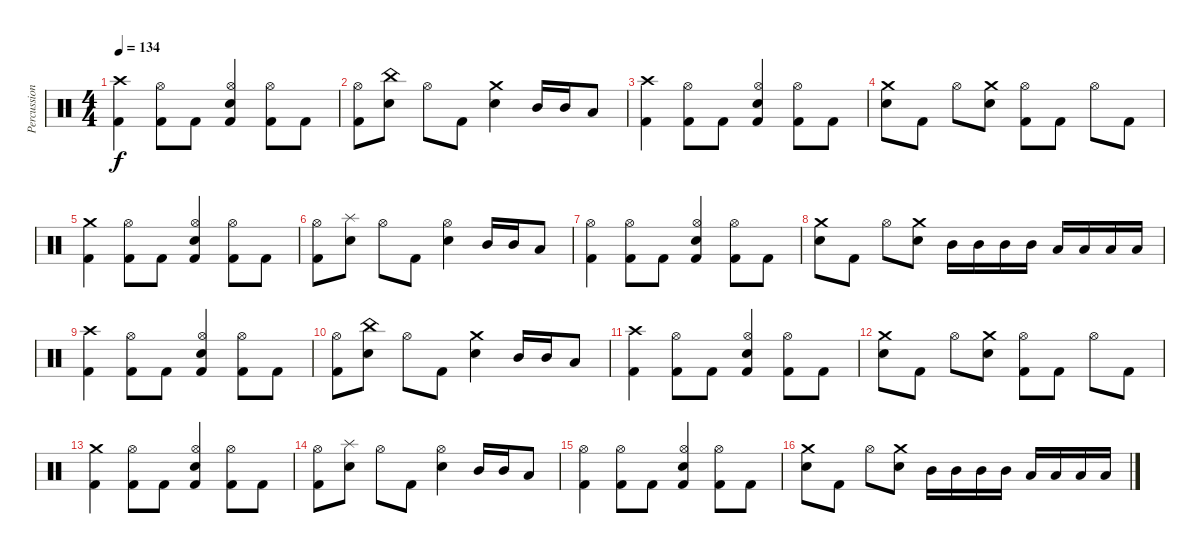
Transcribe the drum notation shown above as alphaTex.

\track ("Percussion" "Percussion") {instrument percussion}
\staff {score}
\articulation defaults
\ts (4 4)
\tempo 134
\clef neutral
\ks c
("Crash high (hit)" "Kick (hit) 2").4{dy f} ("Hi-Hat (open)" "Kick (hit) 2").8 "Kick (hit) 2".8 ("Hi-Hat (open)" "Snare (hit) 2" "Kick (hit) 2").4 ("Hi-Hat (open)" "Kick (hit) 2").8 "Kick (hit) 2".8 |
("Hi-Hat (open)" "Kick (hit) 2").8 ("China (hit)" "Snare (hit) 2").8 "Hi-Hat (open)".8 "Kick (hit) 2".8 ("Crash medium (hit)" "Snare (hit) 2").4 "Mid Tom (hit)".16 "Mid Tom (hit)".16 "Low Tom (hit)".8 |
("Crash high (hit)" "Kick (hit) 2").4 ("Hi-Hat (open)" "Kick (hit) 2").8 "Kick (hit) 2".8 ("Hi-Hat (open)" "Snare (hit) 2" "Kick (hit) 2").4 ("Hi-Hat (open)" "Kick (hit) 2").8 "Kick (hit) 2".8 |
("Crash medium (hit)" "Snare (hit) 2").8 "Kick (hit) 2".8 "Hi-Hat (open)".8 ("Crash medium (hit)" "Snare (hit) 2").8 ("Hi-Hat (open)" "Kick (hit) 2").8 "Kick (hit) 2".8 "Hi-Hat (open)".8 "Kick (hit) 2".8 |
("Crash medium (hit)" "Kick (hit) 2").4 ("Hi-Hat (open)" "Kick (hit) 2").8 "Kick (hit) 2".8 ("Hi-Hat (open)" "Snare (hit) 2" "Kick (hit) 2").4 ("Hi-Hat (open)" "Kick (hit) 2").8 "Kick (hit) 2".8 |
("Hi-Hat (open)" "Kick (hit) 2").8 ("Splash (hit)" "Snare (hit) 2").8 "Hi-Hat (open)".8 "Kick (hit) 2".8 ("Hi-Hat (open)" "Snare (hit) 2").4 "Mid Tom (hit)".16 "Mid Tom (hit)".16 "Low Tom (hit)".8 |
("Hi-Hat (open)" "Kick (hit) 2").4 ("Hi-Hat (open)" "Kick (hit) 2").8 "Kick (hit) 2".8 ("Hi-Hat (open)" "Snare (hit) 2" "Kick (hit) 2").4 ("Hi-Hat (open)" "Kick (hit) 2").8 "Kick (hit) 2".8 |
("Crash medium (hit)" "Snare (hit) 2").8 "Kick (hit) 2".8 "Hi-Hat (open)".8 ("Crash medium (hit)" "Snare (hit) 2").8 "Mid Tom (hit)".16 "Mid Tom (hit)".16 "Mid Tom (hit)".16 "Mid Tom (hit)".16 "Low Tom (hit)".16 "Low Tom (hit)".16 "Low Tom (hit)".16 "Low Tom (hit)".16 |
("Crash high (hit)" "Kick (hit) 2").4 ("Hi-Hat (open)" "Kick (hit) 2").8 "Kick (hit) 2".8 ("Hi-Hat (open)" "Snare (hit) 2" "Kick (hit) 2").4 ("Hi-Hat (open)" "Kick (hit) 2").8 "Kick (hit) 2".8 |
("Hi-Hat (open)" "Kick (hit) 2").8 ("China (hit)" "Snare (hit) 2").8 "Hi-Hat (open)".8 "Kick (hit) 2".8 ("Crash medium (hit)" "Snare (hit) 2").4 "Mid Tom (hit)".16 "Mid Tom (hit)".16 "Low Tom (hit)".8 |
("Crash high (hit)" "Kick (hit) 2").4 ("Hi-Hat (open)" "Kick (hit) 2").8 "Kick (hit) 2".8 ("Hi-Hat (open)" "Snare (hit) 2" "Kick (hit) 2").4 ("Hi-Hat (open)" "Kick (hit) 2").8 "Kick (hit) 2".8 |
("Crash medium (hit)" "Snare (hit) 2").8 "Kick (hit) 2".8 "Hi-Hat (open)".8 ("Crash medium (hit)" "Snare (hit) 2").8 ("Hi-Hat (open)" "Kick (hit) 2").8 "Kick (hit) 2".8 "Hi-Hat (open)".8 "Kick (hit) 2".8 |
("Crash medium (hit)" "Kick (hit) 2").4 ("Hi-Hat (open)" "Kick (hit) 2").8 "Kick (hit) 2".8 ("Hi-Hat (open)" "Snare (hit) 2" "Kick (hit) 2").4 ("Hi-Hat (open)" "Kick (hit) 2").8 "Kick (hit) 2".8 |
("Hi-Hat (open)" "Kick (hit) 2").8 ("Splash (hit)" "Snare (hit) 2").8 "Hi-Hat (open)".8 "Kick (hit) 2".8 ("Hi-Hat (open)" "Snare (hit) 2").4 "Mid Tom (hit)".16 "Mid Tom (hit)".16 "Low Tom (hit)".8 |
("Hi-Hat (open)" "Kick (hit) 2").4 ("Hi-Hat (open)" "Kick (hit) 2").8 "Kick (hit) 2".8 ("Hi-Hat (open)" "Snare (hit) 2" "Kick (hit) 2").4 ("Hi-Hat (open)" "Kick (hit) 2").8 "Kick (hit) 2".8 |
("Crash medium (hit)" "Snare (hit) 2").8 "Kick (hit) 2".8 "Hi-Hat (open)".8 ("Crash medium (hit)" "Snare (hit) 2").8 "Mid Tom (hit)".16 "Mid Tom (hit)".16 "Mid Tom (hit)".16 "Mid Tom (hit)".16 "Low Tom (hit)".16 "Low Tom (hit)".16 "Low Tom (hit)".16 "Low Tom (hit)".16
